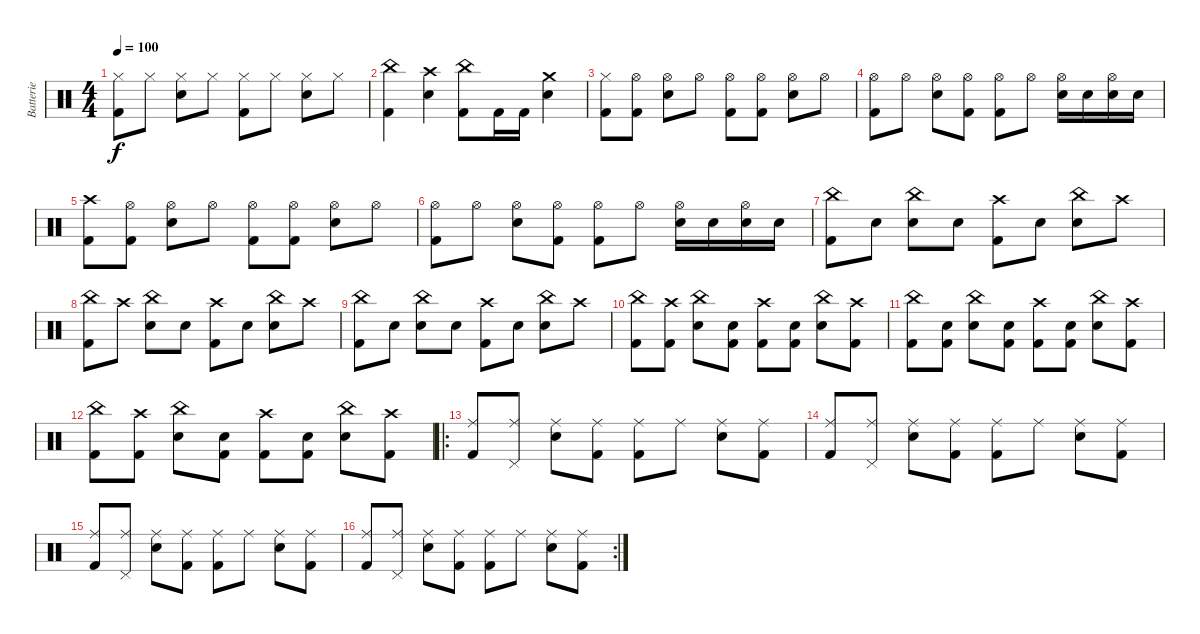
\track ("Batterie" "Batterie") {instrument percussion}
\staff {score}
\articulation defaults
\ts (4 4)
\tempo 100
\clef neutral
\ks c
("Hi-Hat (closed)" "Kick (hit) 2").8{dy f} "Hi-Hat (closed)".8 ("Hi-Hat (closed)" "Electric Snare (hit)").8 "Hi-Hat (closed)".8 ("Hi-Hat (closed)" "Kick (hit) 2").8 "Hi-Hat (closed)".8 ("Hi-Hat (closed)" "Electric Snare (hit)").8 "Hi-Hat (closed)".8 |
("China (hit)" "Kick (hit) 2").4 ("Crash high (hit)" "Electric Snare (hit)").4 ("China (hit)" "Kick (hit) 2").8 "Kick (hit) 2".16 "Kick (hit) 2".16 ("Crash medium (hit)" "Electric Snare (hit)").4 |
("Hi-Hat (closed)" "Kick (hit) 2").8 ("Hi-Hat (open)" "Kick (hit) 2").8 ("Hi-Hat (open)" "Electric Snare (hit)").8 "Hi-Hat (open)".8 ("Hi-Hat (open)" "Kick (hit) 2").8 ("Hi-Hat (open)" "Kick (hit) 2").8 ("Hi-Hat (open)" "Electric Snare (hit)").8 "Hi-Hat (open)".8 |
("Hi-Hat (open)" "Kick (hit) 2").8 "Hi-Hat (open)".8 ("Hi-Hat (open)" "Electric Snare (hit)").8 ("Hi-Hat (open)" "Kick (hit) 2").8 ("Hi-Hat (open)" "Kick (hit) 2").8 "Hi-Hat (open)".8 ("Hi-Hat (open)" "Electric Snare (hit)").16 "Electric Snare (hit)".16 ("Hi-Hat (open)" "Electric Snare (hit)").16 "Electric Snare (hit)".16 |
("Crash high (hit)" "Kick (hit) 2").8 ("Hi-Hat (open)" "Kick (hit) 2").8 ("Hi-Hat (open)" "Electric Snare (hit)").8 "Hi-Hat (open)".8 ("Hi-Hat (open)" "Kick (hit) 2").8 ("Hi-Hat (open)" "Kick (hit) 2").8 ("Hi-Hat (open)" "Electric Snare (hit)").8 "Hi-Hat (open)".8 |
("Hi-Hat (open)" "Kick (hit) 2").8 "Hi-Hat (open)".8 ("Hi-Hat (open)" "Electric Snare (hit)").8 ("Hi-Hat (open)" "Kick (hit) 2").8 ("Hi-Hat (open)" "Kick (hit) 2").8 "Hi-Hat (open)".8 ("Hi-Hat (open)" "Electric Snare (hit)").16 "Electric Snare (hit)".16 ("Hi-Hat (open)" "Electric Snare (hit)").16 "Electric Snare (hit)".16 |
("China (hit)" "Kick (hit) 2").8 "Snare (hit)".8 ("China (hit)" "Electric Snare (hit)").8 "Snare (hit)".8 ("Crash high (hit)" "Kick (hit) 2").8 "Snare (hit)".8 ("China (hit)" "Electric Snare (hit)").8 "Crash high (hit)".8 |
("China (hit)" "Kick (hit) 2").8 "Crash high (hit)".8 ("China (hit)" "Electric Snare (hit)").8 "Snare (hit)".8 ("Crash high (hit)" "Kick (hit) 2").8 "Snare (hit)".8 ("China (hit)" "Electric Snare (hit)").8 "Crash high (hit)".8 |
("China (hit)" "Kick (hit) 2").8 "Snare (hit)".8 ("China (hit)" "Electric Snare (hit)").8 "Snare (hit)".8 ("Crash high (hit)" "Kick (hit) 2").8 "Snare (hit)".8 ("China (hit)" "Electric Snare (hit)").8 "Crash high (hit)".8 |
("China (hit)" "Kick (hit) 2").8 ("Crash high (hit)" "Kick (hit) 2").8 ("China (hit)" "Electric Snare (hit)").8 ("Snare (hit)" "Kick (hit) 2").8 ("Crash high (hit)" "Kick (hit) 2").8 ("Snare (hit)" "Kick (hit) 2").8 ("China (hit)" "Electric Snare (hit)").8 ("Crash high (hit)" "Kick (hit) 2").8 |
("China (hit)" "Kick (hit) 2").8 ("Snare (hit)" "Kick (hit) 2").8 ("China (hit)" "Electric Snare (hit)").8 ("Snare (hit)" "Kick (hit) 2").8 ("Crash high (hit)" "Kick (hit) 2").8 ("Snare (hit)" "Kick (hit) 2").8 ("China (hit)" "Electric Snare (hit)").8 ("Crash high (hit)" "Kick (hit) 2").8 |
("China (hit)" "Kick (hit) 2").8 ("Crash high (hit)" "Kick (hit) 2").8 ("China (hit)" "Electric Snare (hit)").8 ("Snare (hit)" "Kick (hit) 2").8 ("Crash high (hit)" "Kick (hit) 2").8 ("Snare (hit)" "Kick (hit) 2").8 ("China (hit)" "Electric Snare (hit)").8 ("Crash high (hit)" "Kick (hit) 2").8 |
\ro
("Ride (middle)" "Kick (hit) 2").8 ("Ride (middle)" "Pedal Hi-Hat (hit)").8 ("Ride (middle)" "Electric Snare (hit)").8 ("Ride (middle)" "Kick (hit) 2").8 ("Ride (middle)" "Kick (hit) 2").8 "Ride (middle)".8 ("Ride (middle)" "Electric Snare (hit)").8 ("Ride (middle)" "Kick (hit) 2").8 |
("Ride (middle)" "Kick (hit) 2").8 ("Ride (middle)" "Pedal Hi-Hat (hit)").8 ("Ride (middle)" "Electric Snare (hit)").8 ("Ride (middle)" "Kick (hit) 2").8 ("Ride (middle)" "Kick (hit) 2").8 "Ride (middle)".8 ("Ride (middle)" "Electric Snare (hit)").8 ("Ride (middle)" "Kick (hit) 2").8 |
("Ride (middle)" "Kick (hit) 2").8 ("Ride (middle)" "Pedal Hi-Hat (hit)").8 ("Ride (middle)" "Electric Snare (hit)").8 ("Ride (middle)" "Kick (hit) 2").8 ("Ride (middle)" "Kick (hit) 2").8 "Ride (middle)".8 ("Ride (middle)" "Electric Snare (hit)").8 ("Ride (middle)" "Kick (hit) 2").8 |
\rc 2
("Ride (middle)" "Kick (hit) 2").8 ("Ride (middle)" "Pedal Hi-Hat (hit)").8 ("Ride (middle)" "Electric Snare (hit)").8 ("Ride (middle)" "Kick (hit) 2").8 ("Ride (middle)" "Kick (hit) 2").8 "Ride (middle)".8 ("Ride (middle)" "Electric Snare (hit)").8 ("Ride (middle)" "Kick (hit) 2").8
